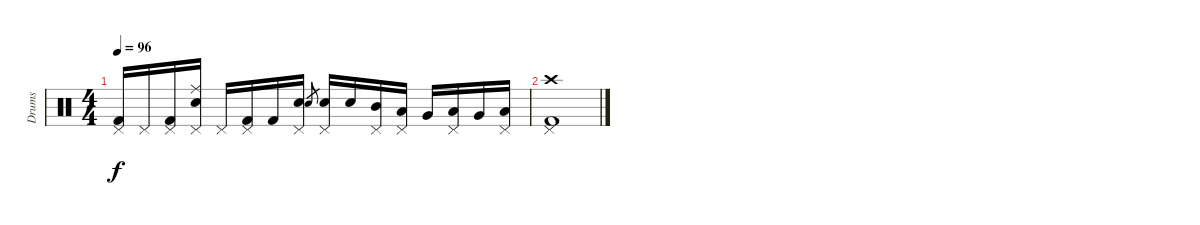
\track ("Drums" "Drums") {instrument percussion}
\staff {score}
\articulation defaults
\ts (4 4)
\tempo 96
\clef neutral
\ks c
("Kick (hit) 2" "Pedal Hi-Hat (hit)").16{dy f} "Pedal Hi-Hat (hit)".16 ("Kick (hit) 2" "Pedal Hi-Hat (hit)").16 ("Snare (hit) 2" "Pedal Hi-Hat (hit)" "Ride (middle)").16 "Pedal Hi-Hat (hit)".16 ("Kick (hit) 2" "Pedal Hi-Hat (hit)").16 "Kick (hit) 2".16 ("Snare (hit) 2" "Pedal Hi-Hat (hit)").16 "Snare (hit) 2".8{gr} ("Snare (hit) 2" "Pedal Hi-Hat (hit)").16 "Snare (hit) 2".16 ("Mid Tom (hit)" "Pedal Hi-Hat (hit)").16 ("Low Tom (hit)" "Pedal Hi-Hat (hit)").16 "Very Low Tom (hit)".16 ("Low Floor Tom (hit)" "Pedal Hi-Hat (hit)").16 "Very Low Tom (hit)".16 ("Low Floor Tom (hit)" "Pedal Hi-Hat (hit)").16 |
("Kick (hit) 2" "Pedal Hi-Hat (hit)" "Crash high (hit)").1
